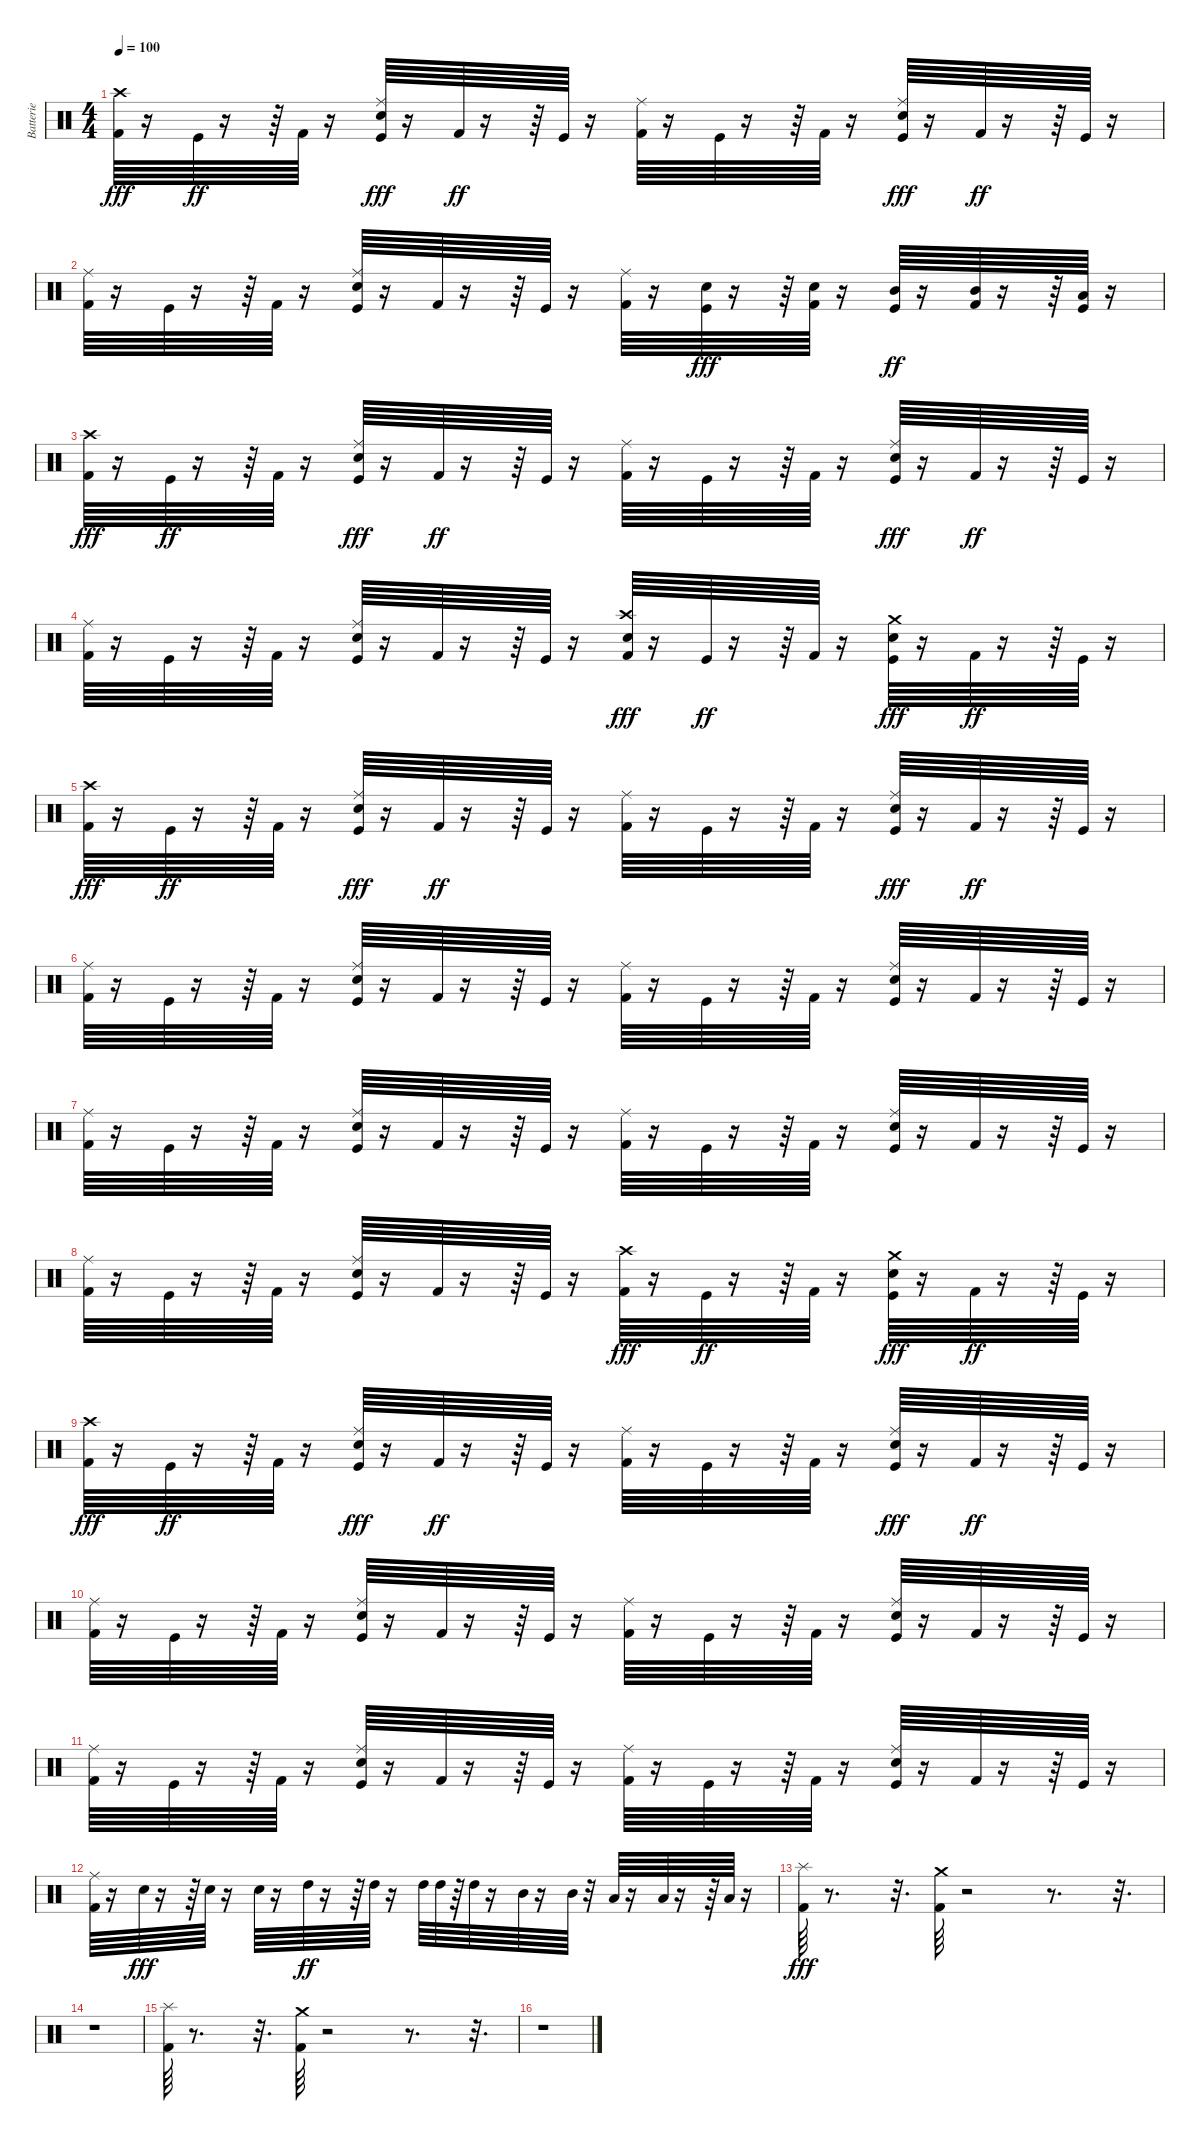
\track ("Batterie" "Batterie") {instrument percussion}
\staff {score}
\articulation defaults
\ts (4 4)
\tempo 100
\clef neutral
\ks c
("Kick (hit) 2" "Crash high (hit)").64{dy fff} r.16 "Kick (hit)".64{dy ff} r.16 r.64 "Kick (hit) 2".64 r.16 ("Kick (hit)" "Ride (middle)" "Electric Snare (hit)").64{dy fff} r.16 "Kick (hit) 2".64{dy ff} r.16 r.64 "Kick (hit)".64 r.16 ("Kick (hit) 2" "Ride (middle)").64 r.16 "Kick (hit)".64 r.16 r.64 "Kick (hit) 2".64 r.16 ("Kick (hit)" "Ride (middle)" "Electric Snare (hit)").64{dy fff} r.16 "Kick (hit) 2".64{dy ff} r.16 r.64 "Kick (hit)".64 r.16 |
("Kick (hit) 2" "Ride (middle)").64 r.16 "Kick (hit)".64 r.16 r.64 "Kick (hit) 2".64 r.16 ("Kick (hit)" "Electric Snare (hit)" "Ride (middle)").64 r.16 "Kick (hit) 2".64 r.16 r.64 "Kick (hit)".64 r.16 ("Kick (hit) 2" "Ride (middle)").64 r.16 ("Kick (hit)" "Electric Snare (hit)").64{dy fff} r.16 r.64 ("Kick (hit) 2" "Electric Snare (hit)").64 r.16 ("Kick (hit)" "Mid Tom (hit)").64{dy ff} r.16 ("Kick (hit) 2" "Mid Tom (hit)").64 r.16 r.64 ("Kick (hit)" "Low Tom (hit)").64 r.16 |
("Kick (hit) 2" "Crash high (hit)").64{dy fff} r.16 "Kick (hit)".64{dy ff} r.16 r.64 "Kick (hit) 2".64 r.16 ("Kick (hit)" "Ride (middle)" "Electric Snare (hit)").64{dy fff} r.16 "Kick (hit) 2".64{dy ff} r.16 r.64 "Kick (hit)".64 r.16 ("Kick (hit) 2" "Ride (middle)").64 r.16 "Kick (hit)".64 r.16 r.64 "Kick (hit) 2".64 r.16 ("Kick (hit)" "Ride (middle)" "Electric Snare (hit)").64{dy fff} r.16 "Kick (hit) 2".64{dy ff} r.16 r.64 "Kick (hit)".64 r.16 |
("Kick (hit) 2" "Ride (middle)").64 r.16 "Kick (hit)".64 r.16 r.64 "Kick (hit) 2".64 r.16 ("Kick (hit)" "Electric Snare (hit)" "Ride (middle)").64 r.16 "Kick (hit) 2".64 r.16 r.64 "Kick (hit)".64 r.16 ("Kick (hit) 2" "Electric Snare (hit)" "Crash high (hit)").64{dy fff} r.16 "Kick (hit)".64{dy ff} r.16 r.64 "Kick (hit) 2".64 r.16 ("Kick (hit)" "Electric Snare (hit)" "Crash medium (hit)").64{dy fff} r.16 "Kick (hit) 2".64{dy ff} r.16 r.64 "Kick (hit)".64 r.16 |
("Kick (hit) 2" "Crash high (hit)").64{dy fff} r.16 "Kick (hit)".64{dy ff} r.16 r.64 "Kick (hit) 2".64 r.16 ("Kick (hit)" "Ride (middle)" "Electric Snare (hit)").64{dy fff} r.16 "Kick (hit) 2".64{dy ff} r.16 r.64 "Kick (hit)".64 r.16 ("Kick (hit) 2" "Ride (middle)").64 r.16 "Kick (hit)".64 r.16 r.64 "Kick (hit) 2".64 r.16 ("Kick (hit)" "Ride (middle)" "Electric Snare (hit)").64{dy fff} r.16 "Kick (hit) 2".64{dy ff} r.16 r.64 "Kick (hit)".64 r.16 |
("Kick (hit) 2" "Ride (middle)").64 r.16 "Kick (hit)".64 r.16 r.64 "Kick (hit) 2".64 r.16 ("Kick (hit)" "Electric Snare (hit)" "Ride (middle)").64 r.16 "Kick (hit) 2".64 r.16 r.64 "Kick (hit)".64 r.16 ("Kick (hit) 2" "Ride (middle)").64 r.16 "Kick (hit)".64 r.16 r.64 "Kick (hit) 2".64 r.16 ("Kick (hit)" "Electric Snare (hit)" "Ride (middle)").64 r.16 "Kick (hit) 2".64 r.16 r.64 "Kick (hit)".64 r.16 |
("Kick (hit) 2" "Ride (middle)").64 r.16 "Kick (hit)".64 r.16 r.64 "Kick (hit) 2".64 r.16 ("Kick (hit)" "Electric Snare (hit)" "Ride (middle)").64 r.16 "Kick (hit) 2".64 r.16 r.64 "Kick (hit)".64 r.16 ("Kick (hit) 2" "Ride (middle)").64 r.16 "Kick (hit)".64 r.16 r.64 "Kick (hit) 2".64 r.16 ("Kick (hit)" "Electric Snare (hit)" "Ride (middle)").64 r.16 "Kick (hit) 2".64 r.16 r.64 "Kick (hit)".64 r.16 |
("Kick (hit) 2" "Ride (middle)").64 r.16 "Kick (hit)".64 r.16 r.64 "Kick (hit) 2".64 r.16 ("Kick (hit)" "Electric Snare (hit)" "Ride (middle)").64 r.16 "Kick (hit) 2".64 r.16 r.64 "Kick (hit)".64 r.16 ("Kick (hit) 2" "Crash high (hit)").64{dy fff} r.16 "Kick (hit)".64{dy ff} r.16 r.64 "Kick (hit) 2".64 r.16 ("Kick (hit)" "Electric Snare (hit)" "Crash medium (hit)").64{dy fff} r.16 "Kick (hit) 2".64{dy ff} r.16 r.64 "Kick (hit)".64 r.16 |
("Kick (hit) 2" "Crash high (hit)").64{dy fff} r.16 "Kick (hit)".64{dy ff} r.16 r.64 "Kick (hit) 2".64 r.16 ("Kick (hit)" "Ride (middle)" "Electric Snare (hit)").64{dy fff} r.16 "Kick (hit) 2".64{dy ff} r.16 r.64 "Kick (hit)".64 r.16 ("Kick (hit) 2" "Ride (middle)").64 r.16 "Kick (hit)".64 r.16 r.64 "Kick (hit) 2".64 r.16 ("Kick (hit)" "Ride (middle)" "Electric Snare (hit)").64{dy fff} r.16 "Kick (hit) 2".64{dy ff} r.16 r.64 "Kick (hit)".64 r.16 |
("Kick (hit) 2" "Ride (middle)").64 r.16 "Kick (hit)".64 r.16 r.64 "Kick (hit) 2".64 r.16 ("Kick (hit)" "Electric Snare (hit)" "Ride (middle)").64 r.16 "Kick (hit) 2".64 r.16 r.64 "Kick (hit)".64 r.16 ("Kick (hit) 2" "Ride (middle)").64 r.16 "Kick (hit)".64 r.16 r.64 "Kick (hit) 2".64 r.16 ("Kick (hit)" "Electric Snare (hit)" "Ride (middle)").64 r.16 "Kick (hit) 2".64 r.16 r.64 "Kick (hit)".64 r.16 |
("Kick (hit) 2" "Ride (middle)").64 r.16 "Kick (hit)".64 r.16 r.64 "Kick (hit) 2".64 r.16 ("Kick (hit)" "Electric Snare (hit)" "Ride (middle)").64 r.16 "Kick (hit) 2".64 r.16 r.64 "Kick (hit)".64 r.16 ("Kick (hit) 2" "Ride (middle)").64 r.16 "Kick (hit)".64 r.16 r.64 "Kick (hit) 2".64 r.16 ("Kick (hit)" "Electric Snare (hit)" "Ride (middle)").64 r.16 "Kick (hit) 2".64 r.16 r.64 "Kick (hit)".64 r.16 |
("Kick (hit) 2" "Ride (middle)").64 r.16 "Electric Snare (hit)".64{dy fff} r.16 r.64 "Electric Snare (hit)".64 r.16 "Electric Snare (hit)".64 r.16 "High Tom (hit)".64{dy ff} r.16 r.64 "High Tom (hit)".64 r.16 "High Tom (hit)".64 "High Tom (hit)".64 r.64 "High Tom (hit)".64 r.16 "Mid Tom (hit)".64 r.16 "Mid Tom (hit)".64 r.32 "Low Tom (hit)".64 r.16 "Low Tom (hit)".64 r.16 r.64 "Low Tom (hit)".64 r.16 |
("Kick (hit) 2" "Splash (hit)").64{dy fff} r.8{d} r.32{d} ("Kick (hit) 2" "Crash medium (hit)").64 r.2 r.8{d} r.32{d} |
r.1 |
("Kick (hit) 2" "Splash (hit)").64 r.8{d} r.32{d} ("Kick (hit) 2" "Crash medium (hit)").64 r.2 r.8{d} r.32{d} |
r.1
